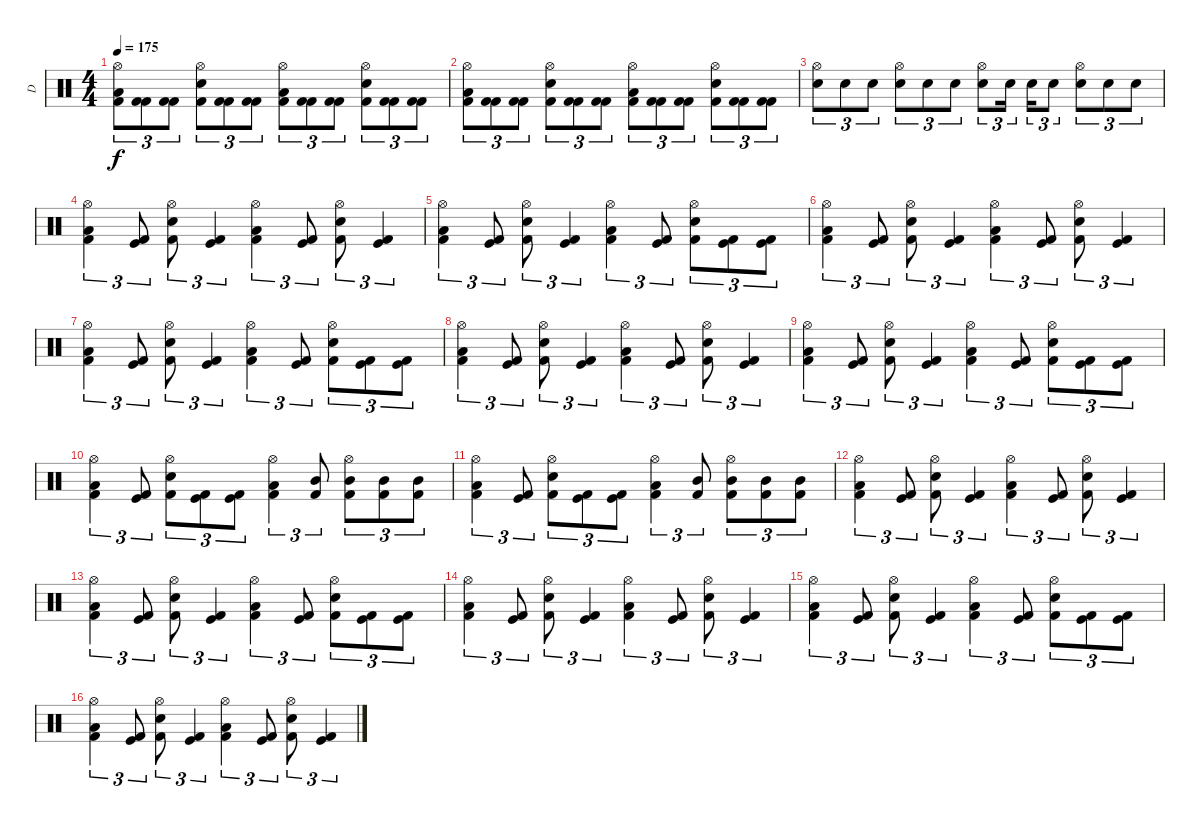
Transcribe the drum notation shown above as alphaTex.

\track ("D" "D") {instrument percussion}
\staff {score}
\articulation defaults
\ts (4 4)
\tempo 175
\clef neutral
\ks c
("Hi-Hat (open)" "Low Floor Tom (hit)" "Kick (hit) 2").8{tu (3 2) dy f} ("Kick (hit) 2" "Kick (hit) 2").8{tu (3 2)} ("Kick (hit) 2" "Kick (hit) 2").8{tu (3 2)} ("Hi-Hat (open)" "Electric Snare (hit)" "Kick (hit) 2").8{tu (3 2)} ("Kick (hit) 2" "Kick (hit) 2").8{tu (3 2)} ("Kick (hit) 2" "Kick (hit) 2").8{tu (3 2)} ("Hi-Hat (open)" "Low Floor Tom (hit)" "Kick (hit) 2").8{tu (3 2)} ("Kick (hit) 2" "Kick (hit) 2").8{tu (3 2)} ("Kick (hit) 2" "Kick (hit) 2").8{tu (3 2)} ("Hi-Hat (open)" "Snare (hit) 2" "Kick (hit) 2").8{tu (3 2)} ("Kick (hit) 2" "Kick (hit) 2").8{tu (3 2)} ("Kick (hit) 2" "Kick (hit) 2").8{tu (3 2)} |
("Hi-Hat (open)" "Low Floor Tom (hit)" "Kick (hit) 2").8{tu (3 2)} ("Kick (hit) 2" "Kick (hit) 2").8{tu (3 2)} ("Kick (hit) 2" "Kick (hit) 2").8{tu (3 2)} ("Hi-Hat (open)" "Electric Snare (hit)" "Kick (hit) 2").8{tu (3 2)} ("Kick (hit) 2" "Kick (hit) 2").8{tu (3 2)} ("Kick (hit) 2" "Kick (hit) 2").8{tu (3 2)} ("Hi-Hat (open)" "Low Floor Tom (hit)" "Kick (hit) 2").8{tu (3 2)} ("Kick (hit) 2" "Kick (hit) 2").8{tu (3 2)} ("Kick (hit) 2" "Kick (hit) 2").8{tu (3 2)} ("Hi-Hat (open)" "Snare (hit) 2" "Kick (hit) 2").8{tu (3 2)} ("Kick (hit) 2" "Kick (hit) 2").8{tu (3 2)} ("Kick (hit) 2" "Kick (hit) 2").8{tu (3 2)} |
("Hi-Hat (open)" "Electric Snare (hit)").8{tu (3 2)} "Electric Snare (hit)".8{tu (3 2)} "Electric Snare (hit)".8{tu (3 2)} ("Hi-Hat (open)" "Electric Snare (hit)").8{tu (3 2)} "Electric Snare (hit)".8{tu (3 2)} "Electric Snare (hit)".8{tu (3 2)} ("Hi-Hat (open)" "Electric Snare (hit)").8{tu (3 2)} "Electric Snare (hit)".16{tu (3 2)} "Electric Snare (hit)".16{tu (3 2)} "Electric Snare (hit)".8{tu (3 2)} ("Hi-Hat (open)" "Electric Snare (hit)").8{tu (3 2)} "Electric Snare (hit)".8{tu (3 2)} "Electric Snare (hit)".8{tu (3 2)} |
("Hi-Hat (open)" "Low Floor Tom (hit)" "Kick (hit) 2").4{tu (3 2)} ("Kick (hit)" "Kick (hit) 2").8{tu (3 2)} ("Hi-Hat (open)" "Electric Snare (hit)" "Kick (hit) 2").8{tu (3 2)} ("Kick (hit)" "Kick (hit) 2").4{tu (3 2)} ("Hi-Hat (open)" "Low Floor Tom (hit)" "Kick (hit) 2").4{tu (3 2)} ("Kick (hit)" "Kick (hit) 2").8{tu (3 2)} ("Hi-Hat (open)" "Electric Snare (hit)" "Kick (hit) 2").8{tu (3 2)} ("Kick (hit)" "Kick (hit) 2").4{tu (3 2)} |
("Hi-Hat (open)" "Low Floor Tom (hit)" "Kick (hit) 2").4{tu (3 2)} ("Kick (hit)" "Kick (hit) 2").8{tu (3 2)} ("Hi-Hat (open)" "Electric Snare (hit)" "Kick (hit) 2").8{tu (3 2)} ("Kick (hit)" "Kick (hit) 2").4{tu (3 2)} ("Hi-Hat (open)" "Low Floor Tom (hit)" "Kick (hit) 2").4{tu (3 2)} ("Kick (hit)" "Kick (hit) 2").8{tu (3 2)} ("Hi-Hat (open)" "Snare (hit) 2" "Kick (hit) 2").8{tu (3 2)} ("Kick (hit)" "Kick (hit) 2").8{tu (3 2)} ("Kick (hit)" "Kick (hit) 2").8{tu (3 2)} |
("Hi-Hat (open)" "Low Floor Tom (hit)" "Kick (hit) 2").4{tu (3 2)} ("Kick (hit)" "Kick (hit) 2").8{tu (3 2)} ("Hi-Hat (open)" "Electric Snare (hit)" "Kick (hit) 2").8{tu (3 2)} ("Kick (hit)" "Kick (hit) 2").4{tu (3 2)} ("Hi-Hat (open)" "Low Floor Tom (hit)" "Kick (hit) 2").4{tu (3 2)} ("Kick (hit)" "Kick (hit) 2").8{tu (3 2)} ("Hi-Hat (open)" "Electric Snare (hit)" "Kick (hit) 2").8{tu (3 2)} ("Kick (hit)" "Kick (hit) 2").4{tu (3 2)} |
("Hi-Hat (open)" "Low Floor Tom (hit)" "Kick (hit) 2").4{tu (3 2)} ("Kick (hit)" "Kick (hit) 2").8{tu (3 2)} ("Hi-Hat (open)" "Electric Snare (hit)" "Kick (hit) 2").8{tu (3 2)} ("Kick (hit)" "Kick (hit) 2").4{tu (3 2)} ("Hi-Hat (open)" "Low Floor Tom (hit)" "Kick (hit) 2").4{tu (3 2)} ("Kick (hit)" "Kick (hit) 2").8{tu (3 2)} ("Hi-Hat (open)" "Snare (hit) 2" "Kick (hit) 2").8{tu (3 2)} ("Kick (hit)" "Kick (hit) 2").8{tu (3 2)} ("Kick (hit)" "Kick (hit) 2").8{tu (3 2)} |
("Hi-Hat (open)" "Low Floor Tom (hit)" "Kick (hit) 2").4{tu (3 2)} ("Kick (hit)" "Kick (hit) 2").8{tu (3 2)} ("Hi-Hat (open)" "Electric Snare (hit)" "Kick (hit) 2").8{tu (3 2)} ("Kick (hit)" "Kick (hit) 2").4{tu (3 2)} ("Hi-Hat (open)" "Low Floor Tom (hit)" "Kick (hit) 2").4{tu (3 2)} ("Kick (hit)" "Kick (hit) 2").8{tu (3 2)} ("Hi-Hat (open)" "Electric Snare (hit)" "Kick (hit) 2").8{tu (3 2)} ("Kick (hit)" "Kick (hit) 2").4{tu (3 2)} |
("Hi-Hat (open)" "Low Floor Tom (hit)" "Kick (hit) 2").4{tu (3 2)} ("Kick (hit)" "Kick (hit) 2").8{tu (3 2)} ("Hi-Hat (open)" "Electric Snare (hit)" "Kick (hit) 2").8{tu (3 2)} ("Kick (hit)" "Kick (hit) 2").4{tu (3 2)} ("Hi-Hat (open)" "Low Floor Tom (hit)" "Kick (hit) 2").4{tu (3 2)} ("Kick (hit)" "Kick (hit) 2").8{tu (3 2)} ("Hi-Hat (open)" "Snare (hit) 2" "Kick (hit) 2").8{tu (3 2)} ("Kick (hit)" "Kick (hit) 2").8{tu (3 2)} ("Kick (hit)" "Kick (hit) 2").8{tu (3 2)} |
("Hi-Hat (open)" "Low Floor Tom (hit)" "Kick (hit) 2").4{tu (3 2)} ("Kick (hit)" "Kick (hit) 2").8{tu (3 2)} ("Hi-Hat (open)" "Electric Snare (hit)" "Kick (hit) 2").8{tu (3 2)} ("Kick (hit)" "Kick (hit) 2").8{tu (3 2)} ("Kick (hit)" "Kick (hit) 2").8{tu (3 2)} ("Hi-Hat (open)" "Low Floor Tom (hit)" "Kick (hit) 2").4{tu (3 2)} ("Mid Tom (hit)" "Kick (hit) 2").8{tu (3 2)} ("Hi-Hat (open)" "Mid Tom (hit)" "Kick (hit) 2").8{tu (3 2)} ("Mid Tom (hit)" "Kick (hit) 2").8{tu (3 2)} ("Mid Tom (hit)" "Kick (hit) 2").8{tu (3 2)} |
("Hi-Hat (open)" "Low Floor Tom (hit)" "Kick (hit) 2").4{tu (3 2)} ("Kick (hit)" "Kick (hit) 2").8{tu (3 2)} ("Hi-Hat (open)" "Electric Snare (hit)" "Kick (hit) 2").8{tu (3 2)} ("Kick (hit)" "Kick (hit) 2").8{tu (3 2)} ("Kick (hit)" "Kick (hit) 2").8{tu (3 2)} ("Hi-Hat (open)" "Low Floor Tom (hit)" "Kick (hit) 2").4{tu (3 2)} ("Mid Tom (hit)" "Kick (hit) 2").8{tu (3 2)} ("Hi-Hat (open)" "Mid Tom (hit)" "Kick (hit) 2").8{tu (3 2)} ("Mid Tom (hit)" "Kick (hit) 2").8{tu (3 2)} ("Mid Tom (hit)" "Kick (hit) 2").8{tu (3 2)} |
("Hi-Hat (open)" "Low Floor Tom (hit)" "Kick (hit) 2").4{tu (3 2)} ("Kick (hit)" "Kick (hit) 2").8{tu (3 2)} ("Hi-Hat (open)" "Electric Snare (hit)" "Kick (hit) 2").8{tu (3 2)} ("Kick (hit)" "Kick (hit) 2").4{tu (3 2)} ("Hi-Hat (open)" "Low Floor Tom (hit)" "Kick (hit) 2").4{tu (3 2)} ("Kick (hit)" "Kick (hit) 2").8{tu (3 2)} ("Hi-Hat (open)" "Electric Snare (hit)" "Kick (hit) 2").8{tu (3 2)} ("Kick (hit)" "Kick (hit) 2").4{tu (3 2)} |
("Hi-Hat (open)" "Low Floor Tom (hit)" "Kick (hit) 2").4{tu (3 2)} ("Kick (hit)" "Kick (hit) 2").8{tu (3 2)} ("Hi-Hat (open)" "Electric Snare (hit)" "Kick (hit) 2").8{tu (3 2)} ("Kick (hit)" "Kick (hit) 2").4{tu (3 2)} ("Hi-Hat (open)" "Low Floor Tom (hit)" "Kick (hit) 2").4{tu (3 2)} ("Kick (hit)" "Kick (hit) 2").8{tu (3 2)} ("Hi-Hat (open)" "Snare (hit) 2" "Kick (hit) 2").8{tu (3 2)} ("Kick (hit)" "Kick (hit) 2").8{tu (3 2)} ("Kick (hit)" "Kick (hit) 2").8{tu (3 2)} |
("Hi-Hat (open)" "Low Floor Tom (hit)" "Kick (hit) 2").4{tu (3 2)} ("Kick (hit)" "Kick (hit) 2").8{tu (3 2)} ("Hi-Hat (open)" "Electric Snare (hit)" "Kick (hit) 2").8{tu (3 2)} ("Kick (hit)" "Kick (hit) 2").4{tu (3 2)} ("Hi-Hat (open)" "Low Floor Tom (hit)" "Kick (hit) 2").4{tu (3 2)} ("Kick (hit)" "Kick (hit) 2").8{tu (3 2)} ("Hi-Hat (open)" "Electric Snare (hit)" "Kick (hit) 2").8{tu (3 2)} ("Kick (hit)" "Kick (hit) 2").4{tu (3 2)} |
("Hi-Hat (open)" "Low Floor Tom (hit)" "Kick (hit) 2").4{tu (3 2)} ("Kick (hit)" "Kick (hit) 2").8{tu (3 2)} ("Hi-Hat (open)" "Electric Snare (hit)" "Kick (hit) 2").8{tu (3 2)} ("Kick (hit)" "Kick (hit) 2").4{tu (3 2)} ("Hi-Hat (open)" "Low Floor Tom (hit)" "Kick (hit) 2").4{tu (3 2)} ("Kick (hit)" "Kick (hit) 2").8{tu (3 2)} ("Hi-Hat (open)" "Snare (hit) 2" "Kick (hit) 2").8{tu (3 2)} ("Kick (hit)" "Kick (hit) 2").8{tu (3 2)} ("Kick (hit)" "Kick (hit) 2").8{tu (3 2)} |
("Hi-Hat (open)" "Low Floor Tom (hit)" "Kick (hit) 2").4{tu (3 2)} ("Kick (hit)" "Kick (hit) 2").8{tu (3 2)} ("Hi-Hat (open)" "Electric Snare (hit)" "Kick (hit) 2").8{tu (3 2)} ("Kick (hit)" "Kick (hit) 2").4{tu (3 2)} ("Hi-Hat (open)" "Low Floor Tom (hit)" "Kick (hit) 2").4{tu (3 2)} ("Kick (hit)" "Kick (hit) 2").8{tu (3 2)} ("Hi-Hat (open)" "Electric Snare (hit)" "Kick (hit) 2").8{tu (3 2)} ("Kick (hit)" "Kick (hit) 2").4{tu (3 2)}
